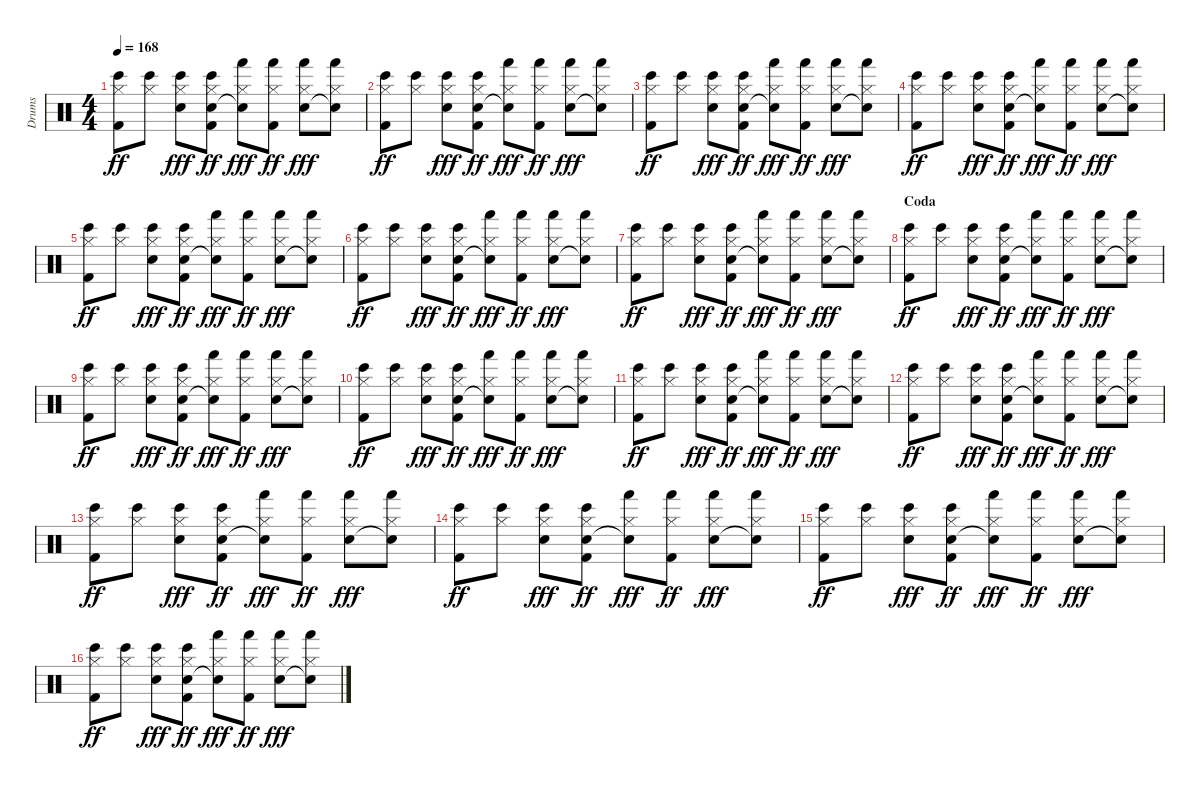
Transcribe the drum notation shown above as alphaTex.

\track ("Drums" "Drums") {instrument percussion}
\staff {score}
\articulation defaults
\ts (4 4)
\tempo 168
\clef neutral
\ks c
("Bongo High (hit)" "Hi-Hat (closed)" "Kick (hit) 2").8{dy ff} ("Bongo High (hit)" "Hi-Hat (closed)").8 ("Bongo High (hit)" "Hi-Hat (closed)" "Electric Snare (hit)").8{dy fff} ("Bongo High (hit)" "Hi-Hat (closed)" "Electric Snare (hit)" "Kick (hit) 2").8{dy ff} ("Hand (hit)" "Hi-Hat (closed)" "Electric Snare (hit)"{t}).8{dy fff} ("Hand (hit)" "Hi-Hat (closed)" "Kick (hit) 2").8{dy ff} ("Hand (hit)" "Hi-Hat (closed)" "Electric Snare (hit)").8{dy fff} ("Hand (hit)" "Hi-Hat (closed)" "Snare (hit)"{t}).8 |
("Bongo High (hit)" "Hi-Hat (closed)" "Kick (hit) 2").8{dy ff} ("Bongo High (hit)" "Hi-Hat (closed)").8 ("Bongo High (hit)" "Hi-Hat (closed)" "Electric Snare (hit)").8{dy fff} ("Bongo High (hit)" "Hi-Hat (closed)" "Electric Snare (hit)" "Kick (hit) 2").8{dy ff} ("Hand (hit)" "Hi-Hat (closed)" "Electric Snare (hit)"{t}).8{dy fff} ("Hand (hit)" "Hi-Hat (closed)" "Kick (hit) 2").8{dy ff} ("Hand (hit)" "Hi-Hat (closed)" "Electric Snare (hit)").8{dy fff} ("Hand (hit)" "Hi-Hat (closed)" "Snare (hit)"{t}).8 |
("Bongo High (hit)" "Hi-Hat (closed)" "Kick (hit) 2").8{dy ff} ("Bongo High (hit)" "Hi-Hat (closed)").8 ("Bongo High (hit)" "Hi-Hat (closed)" "Electric Snare (hit)").8{dy fff} ("Bongo High (hit)" "Hi-Hat (closed)" "Electric Snare (hit)" "Kick (hit) 2").8{dy ff} ("Hand (hit)" "Hi-Hat (closed)" "Electric Snare (hit)"{t}).8{dy fff} ("Hand (hit)" "Hi-Hat (closed)" "Kick (hit) 2").8{dy ff} ("Hand (hit)" "Hi-Hat (closed)" "Electric Snare (hit)").8{dy fff} ("Hand (hit)" "Hi-Hat (closed)" "Snare (hit)"{t}).8 |
("Bongo High (hit)" "Hi-Hat (closed)" "Kick (hit) 2").8{dy ff} ("Bongo High (hit)" "Hi-Hat (closed)").8 ("Bongo High (hit)" "Hi-Hat (closed)" "Electric Snare (hit)").8{dy fff} ("Bongo High (hit)" "Hi-Hat (closed)" "Electric Snare (hit)" "Kick (hit) 2").8{dy ff} ("Hand (hit)" "Hi-Hat (closed)" "Electric Snare (hit)"{t}).8{dy fff} ("Hand (hit)" "Hi-Hat (closed)" "Kick (hit) 2").8{dy ff} ("Hand (hit)" "Hi-Hat (closed)" "Electric Snare (hit)").8{dy fff} ("Hand (hit)" "Hi-Hat (closed)" "Snare (hit)"{t}).8 |
("Bongo High (hit)" "Hi-Hat (closed)" "Kick (hit) 2").8{dy ff} ("Bongo High (hit)" "Hi-Hat (closed)").8 ("Bongo High (hit)" "Hi-Hat (closed)" "Electric Snare (hit)").8{dy fff} ("Bongo High (hit)" "Hi-Hat (closed)" "Electric Snare (hit)" "Kick (hit) 2").8{dy ff} ("Hand (hit)" "Hi-Hat (closed)" "Electric Snare (hit)"{t}).8{dy fff} ("Hand (hit)" "Hi-Hat (closed)" "Kick (hit) 2").8{dy ff} ("Hand (hit)" "Hi-Hat (closed)" "Electric Snare (hit)").8{dy fff} ("Hand (hit)" "Hi-Hat (closed)" "Snare (hit)"{t}).8 |
("Bongo High (hit)" "Hi-Hat (closed)" "Kick (hit) 2").8{dy ff} ("Bongo High (hit)" "Hi-Hat (closed)").8 ("Bongo High (hit)" "Hi-Hat (closed)" "Electric Snare (hit)").8{dy fff} ("Bongo High (hit)" "Hi-Hat (closed)" "Electric Snare (hit)" "Kick (hit) 2").8{dy ff} ("Hand (hit)" "Hi-Hat (closed)" "Electric Snare (hit)"{t}).8{dy fff} ("Hand (hit)" "Hi-Hat (closed)" "Kick (hit) 2").8{dy ff} ("Hand (hit)" "Hi-Hat (closed)" "Electric Snare (hit)").8{dy fff} ("Hand (hit)" "Hi-Hat (closed)" "Snare (hit)"{t}).8 |
("Bongo High (hit)" "Hi-Hat (closed)" "Kick (hit) 2").8{dy ff} ("Bongo High (hit)" "Hi-Hat (closed)").8 ("Bongo High (hit)" "Hi-Hat (closed)" "Electric Snare (hit)").8{dy fff} ("Bongo High (hit)" "Hi-Hat (closed)" "Electric Snare (hit)" "Kick (hit) 2").8{dy ff} ("Hand (hit)" "Hi-Hat (closed)" "Electric Snare (hit)"{t}).8{dy fff} ("Hand (hit)" "Hi-Hat (closed)" "Kick (hit) 2").8{dy ff} ("Hand (hit)" "Hi-Hat (closed)" "Electric Snare (hit)").8{dy fff} ("Hand (hit)" "Hi-Hat (closed)" "Snare (hit)"{t}).8 |
\section ("" "Coda")
("Bongo High (hit)" "Hi-Hat (closed)" "Kick (hit) 2").8{dy ff} ("Bongo High (hit)" "Hi-Hat (closed)").8 ("Bongo High (hit)" "Hi-Hat (closed)" "Electric Snare (hit)").8{dy fff} ("Bongo High (hit)" "Hi-Hat (closed)" "Electric Snare (hit)" "Kick (hit) 2").8{dy ff} ("Hand (hit)" "Hi-Hat (closed)" "Electric Snare (hit)"{t}).8{dy fff} ("Hand (hit)" "Hi-Hat (closed)" "Kick (hit) 2").8{dy ff} ("Hand (hit)" "Hi-Hat (closed)" "Electric Snare (hit)").8{dy fff} ("Hand (hit)" "Hi-Hat (closed)" "Snare (hit)"{t}).8 |
("Bongo High (hit)" "Hi-Hat (closed)" "Kick (hit) 2").8{dy ff} ("Bongo High (hit)" "Hi-Hat (closed)").8 ("Bongo High (hit)" "Hi-Hat (closed)" "Electric Snare (hit)").8{dy fff} ("Bongo High (hit)" "Hi-Hat (closed)" "Electric Snare (hit)" "Kick (hit) 2").8{dy ff} ("Hand (hit)" "Hi-Hat (closed)" "Electric Snare (hit)"{t}).8{dy fff} ("Hand (hit)" "Hi-Hat (closed)" "Kick (hit) 2").8{dy ff} ("Hand (hit)" "Hi-Hat (closed)" "Electric Snare (hit)").8{dy fff} ("Hand (hit)" "Hi-Hat (closed)" "Snare (hit)"{t}).8 |
("Bongo High (hit)" "Hi-Hat (closed)" "Kick (hit) 2").8{dy ff} ("Bongo High (hit)" "Hi-Hat (closed)").8 ("Bongo High (hit)" "Hi-Hat (closed)" "Electric Snare (hit)").8{dy fff} ("Bongo High (hit)" "Hi-Hat (closed)" "Electric Snare (hit)" "Kick (hit) 2").8{dy ff} ("Hand (hit)" "Hi-Hat (closed)" "Electric Snare (hit)"{t}).8{dy fff} ("Hand (hit)" "Hi-Hat (closed)" "Kick (hit) 2").8{dy ff} ("Hand (hit)" "Hi-Hat (closed)" "Electric Snare (hit)").8{dy fff} ("Hand (hit)" "Hi-Hat (closed)" "Snare (hit)"{t}).8 |
("Bongo High (hit)" "Hi-Hat (closed)" "Kick (hit) 2").8{dy ff} ("Bongo High (hit)" "Hi-Hat (closed)").8 ("Bongo High (hit)" "Hi-Hat (closed)" "Electric Snare (hit)").8{dy fff} ("Bongo High (hit)" "Hi-Hat (closed)" "Electric Snare (hit)" "Kick (hit) 2").8{dy ff} ("Hand (hit)" "Hi-Hat (closed)" "Electric Snare (hit)"{t}).8{dy fff} ("Hand (hit)" "Hi-Hat (closed)" "Kick (hit) 2").8{dy ff} ("Hand (hit)" "Hi-Hat (closed)" "Electric Snare (hit)").8{dy fff} ("Hand (hit)" "Hi-Hat (closed)" "Snare (hit)"{t}).8 |
("Bongo High (hit)" "Hi-Hat (closed)" "Kick (hit) 2").8{dy ff} ("Bongo High (hit)" "Hi-Hat (closed)").8 ("Bongo High (hit)" "Hi-Hat (closed)" "Electric Snare (hit)").8{dy fff} ("Bongo High (hit)" "Hi-Hat (closed)" "Electric Snare (hit)" "Kick (hit) 2").8{dy ff} ("Hand (hit)" "Hi-Hat (closed)" "Electric Snare (hit)"{t}).8{dy fff} ("Hand (hit)" "Hi-Hat (closed)" "Kick (hit) 2").8{dy ff} ("Hand (hit)" "Hi-Hat (closed)" "Electric Snare (hit)").8{dy fff} ("Hand (hit)" "Hi-Hat (closed)" "Snare (hit)"{t}).8 |
("Bongo High (hit)" "Hi-Hat (closed)" "Kick (hit) 2").8{dy ff} ("Bongo High (hit)" "Hi-Hat (closed)").8 ("Bongo High (hit)" "Hi-Hat (closed)" "Electric Snare (hit)").8{dy fff} ("Bongo High (hit)" "Hi-Hat (closed)" "Electric Snare (hit)" "Kick (hit) 2").8{dy ff} ("Hand (hit)" "Hi-Hat (closed)" "Electric Snare (hit)"{t}).8{dy fff} ("Hand (hit)" "Hi-Hat (closed)" "Kick (hit) 2").8{dy ff} ("Hand (hit)" "Hi-Hat (closed)" "Electric Snare (hit)").8{dy fff} ("Hand (hit)" "Hi-Hat (closed)" "Snare (hit)"{t}).8 |
("Bongo High (hit)" "Hi-Hat (closed)" "Kick (hit) 2").8{dy ff} ("Bongo High (hit)" "Hi-Hat (closed)").8 ("Bongo High (hit)" "Hi-Hat (closed)" "Electric Snare (hit)").8{dy fff} ("Bongo High (hit)" "Hi-Hat (closed)" "Electric Snare (hit)" "Kick (hit) 2").8{dy ff} ("Hand (hit)" "Hi-Hat (closed)" "Electric Snare (hit)"{t}).8{dy fff} ("Hand (hit)" "Hi-Hat (closed)" "Kick (hit) 2").8{dy ff} ("Hand (hit)" "Hi-Hat (closed)" "Electric Snare (hit)").8{dy fff} ("Hand (hit)" "Hi-Hat (closed)" "Snare (hit)"{t}).8 |
("Bongo High (hit)" "Hi-Hat (closed)" "Kick (hit) 2").8{dy ff} ("Bongo High (hit)" "Hi-Hat (closed)").8 ("Bongo High (hit)" "Hi-Hat (closed)" "Electric Snare (hit)").8{dy fff} ("Bongo High (hit)" "Hi-Hat (closed)" "Electric Snare (hit)" "Kick (hit) 2").8{dy ff} ("Hand (hit)" "Hi-Hat (closed)" "Electric Snare (hit)"{t}).8{dy fff} ("Hand (hit)" "Hi-Hat (closed)" "Kick (hit) 2").8{dy ff} ("Hand (hit)" "Hi-Hat (closed)" "Electric Snare (hit)").8{dy fff} ("Hand (hit)" "Hi-Hat (closed)" "Snare (hit)"{t}).8 |
("Bongo High (hit)" "Hi-Hat (closed)" "Kick (hit) 2").8{dy ff} ("Bongo High (hit)" "Hi-Hat (closed)").8 ("Bongo High (hit)" "Hi-Hat (closed)" "Electric Snare (hit)").8{dy fff} ("Bongo High (hit)" "Hi-Hat (closed)" "Electric Snare (hit)" "Kick (hit) 2").8{dy ff} ("Hand (hit)" "Hi-Hat (closed)" "Electric Snare (hit)"{t}).8{dy fff} ("Hand (hit)" "Hi-Hat (closed)" "Kick (hit) 2").8{dy ff} ("Hand (hit)" "Hi-Hat (closed)" "Electric Snare (hit)").8{dy fff} ("Hand (hit)" "Hi-Hat (closed)" "Snare (hit)"{t}).8
